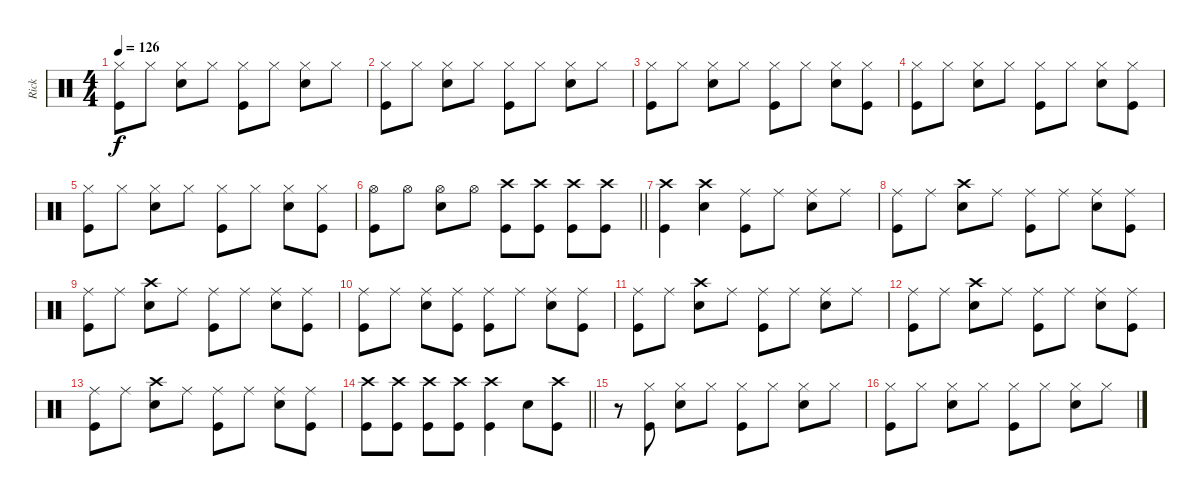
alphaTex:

\track ("Rick" "Rick") {instrument percussion}
\staff {score}
\articulation defaults
\ts (4 4)
\tempo 126
\clef neutral
\ks aminor
("Hi-Hat (closed)" "Kick (hit)").8{dy f} "Hi-Hat (closed)".8 ("Hi-Hat (closed)" "Snare (hit) 2").8 "Hi-Hat (closed)".8 ("Hi-Hat (closed)" "Kick (hit)").8 "Hi-Hat (closed)".8 ("Hi-Hat (closed)" "Snare (hit) 2").8 "Hi-Hat (closed)".8 |
("Hi-Hat (closed)" "Kick (hit)").8 "Hi-Hat (closed)".8 ("Hi-Hat (closed)" "Snare (hit) 2").8 "Hi-Hat (closed)".8 ("Hi-Hat (closed)" "Kick (hit)").8 "Hi-Hat (closed)".8 ("Hi-Hat (closed)" "Snare (hit) 2").8 "Hi-Hat (closed)".8 |
("Hi-Hat (closed)" "Kick (hit)").8 "Hi-Hat (closed)".8 ("Hi-Hat (closed)" "Snare (hit) 2").8 "Hi-Hat (closed)".8 ("Hi-Hat (closed)" "Kick (hit)").8 "Hi-Hat (closed)".8 ("Hi-Hat (closed)" "Snare (hit) 2").8 ("Hi-Hat (closed)" "Kick (hit)").8 |
("Hi-Hat (closed)" "Kick (hit)").8 "Hi-Hat (closed)".8 ("Hi-Hat (closed)" "Snare (hit) 2").8 "Hi-Hat (closed)".8 ("Hi-Hat (closed)" "Kick (hit)").8 "Hi-Hat (closed)".8 ("Hi-Hat (closed)" "Snare (hit) 2").8 ("Hi-Hat (closed)" "Kick (hit)").8 |
("Hi-Hat (closed)" "Kick (hit)").8 "Hi-Hat (closed)".8 ("Hi-Hat (closed)" "Snare (hit) 2").8 "Hi-Hat (closed)".8 ("Hi-Hat (closed)" "Kick (hit)").8 "Hi-Hat (closed)".8 ("Hi-Hat (closed)" "Snare (hit) 2").8 ("Hi-Hat (closed)" "Kick (hit)").8 |
\barLineRight lightlight
("Hi-Hat (open)" "Kick (hit)").8 "Hi-Hat (open)".8 ("Hi-Hat (open)" "Snare (hit) 2").8 "Hi-Hat (open)".8 ("Crash high (hit)" "Kick (hit)").8 ("Crash high (hit)" "Kick (hit)").8 ("Crash high (hit)" "Kick (hit)").8 ("Crash high (hit)" "Kick (hit)").8 |
("Crash high (hit)" "Kick (hit)").4 ("Crash high (hit)" "Snare (hit) 2").4 ("Ride (middle)" "Kick (hit)").8 "Ride (middle)".8 ("Ride (middle)" "Snare (hit) 2").8 "Ride (middle)".8 |
("Ride (middle)" "Kick (hit)").8 "Ride (middle)".8 ("Crash high (hit)" "Snare (hit) 2").8 "Ride (middle)".8 ("Ride (middle)" "Kick (hit)").8 "Ride (middle)".8 ("Ride (middle)" "Snare (hit) 2").8 ("Ride (middle)" "Kick (hit)").8 |
("Ride (middle)" "Kick (hit)").8 "Ride (middle)".8 ("Crash high (hit)" "Snare (hit) 2").8 "Ride (middle)".8 ("Ride (middle)" "Kick (hit)").8 "Ride (middle)".8 ("Ride (middle)" "Snare (hit) 2").8 ("Ride (middle)" "Kick (hit)").8 |
("Ride (middle)" "Kick (hit)").8 "Ride (middle)".8 ("Ride (middle)" "Snare (hit) 2").8 ("Ride (middle)" "Kick (hit)").8 ("Ride (middle)" "Kick (hit)").8 "Ride (middle)".8 ("Ride (middle)" "Snare (hit) 2").8 ("Ride (middle)" "Kick (hit)").8 |
("Ride (middle)" "Kick (hit)").8 "Ride (middle)".8 ("Crash high (hit)" "Snare (hit) 2").8 "Ride (middle)".8 ("Ride (middle)" "Kick (hit)").8 "Ride (middle)".8 ("Ride (middle)" "Snare (hit) 2").8 "Ride (middle)".8 |
("Ride (middle)" "Kick (hit)").8 "Ride (middle)".8 ("Crash high (hit)" "Snare (hit) 2").8 "Ride (middle)".8 ("Ride (middle)" "Kick (hit)").8 "Ride (middle)".8 ("Ride (middle)" "Snare (hit) 2").8 ("Ride (middle)" "Kick (hit)").8 |
("Ride (middle)" "Kick (hit)").8 "Ride (middle)".8 ("Crash high (hit)" "Snare (hit) 2").8 "Ride (middle)".8 ("Ride (middle)" "Kick (hit)").8 "Ride (middle)".8 ("Ride (middle)" "Snare (hit) 2").8 ("Ride (middle)" "Kick (hit)").8 |
\barLineRight lightlight
("Crash high (hit)" "Kick (hit)").8 ("Crash high (hit)" "Kick (hit)").8 ("Crash high (hit)" "Kick (hit)").8 ("Crash high (hit)" "Kick (hit)").8 ("Crash high (hit)" "Kick (hit)").4 "Snare (hit) 2".8 ("Crash high (hit)" "Kick (hit)").8 |
r.8 ("Hi-Hat (closed)" "Kick (hit)").8 ("Hi-Hat (closed)" "Snare (hit) 2").8 "Hi-Hat (closed)".8 ("Hi-Hat (closed)" "Kick (hit)").8 "Hi-Hat (closed)".8 ("Hi-Hat (closed)" "Snare (hit) 2").8 "Hi-Hat (closed)".8 |
("Hi-Hat (closed)" "Kick (hit)").8 "Hi-Hat (closed)".8 ("Hi-Hat (closed)" "Snare (hit) 2").8 "Hi-Hat (closed)".8 ("Hi-Hat (closed)" "Kick (hit)").8 "Hi-Hat (closed)".8 ("Hi-Hat (closed)" "Snare (hit) 2").8 "Hi-Hat (closed)".8
